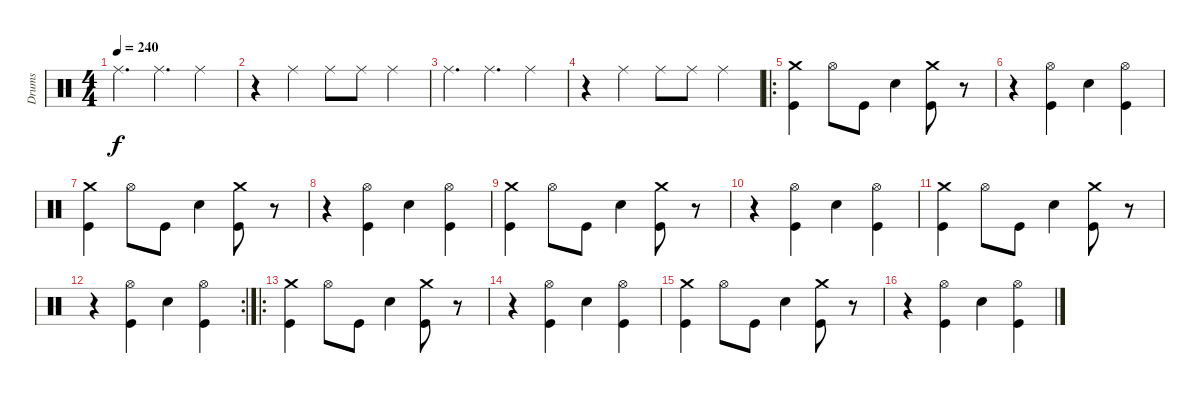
\track ("Drums" "Drums") {instrument percussion}
\staff {score}
\articulation defaults
\ts (4 4)
\tempo 240
\clef neutral
\ks c "Ride (middle)".4{d dy f} "Ride (middle)".4{d} "Ride (middle)".4
|
r.4 "Ride (middle)".4 "Ride (middle)".8 "Ride (middle)".8 "Ride (middle)".4 |
"Ride (middle)".4{d} "Ride (middle)".4{d} "Ride (middle)".4 |
r.4 "Ride (middle)".4 "Ride (middle)".8 "Ride (middle)".8 "Ride (middle)".4 |
\ro
("Crash medium (hit)" "Kick (hit)").4 "Hi-Hat (open)".8 "Kick (hit)".8 "Snare (hit) 2".4 ("Crash medium (hit)" "Kick (hit)").8 r.8 |
r.4 ("Hi-Hat (open)" "Kick (hit)").4 "Snare (hit) 2".4 ("Hi-Hat (open)" "Kick (hit)").4 |
("Crash medium (hit)" "Kick (hit)").4 "Hi-Hat (open)".8 "Kick (hit)".8 "Snare (hit) 2".4 ("Crash medium (hit)" "Kick (hit)").8 r.8 |
r.4 ("Hi-Hat (open)" "Kick (hit)").4 "Snare (hit) 2".4 ("Hi-Hat (open)" "Kick (hit)").4 |
("Crash medium (hit)" "Kick (hit)").4 "Hi-Hat (open)".8 "Kick (hit)".8 "Snare (hit) 2".4 ("Crash medium (hit)" "Kick (hit)").8 r.8 |
r.4 ("Hi-Hat (open)" "Kick (hit)").4 "Snare (hit) 2".4 ("Hi-Hat (open)" "Kick (hit)").4 |
("Crash medium (hit)" "Kick (hit)").4 "Hi-Hat (open)".8 "Kick (hit)".8 "Snare (hit) 2".4 ("Crash medium (hit)" "Kick (hit)").8 r.8 |
\rc 2
r.4 ("Hi-Hat (open)" "Kick (hit)").4 "Snare (hit) 2".4 ("Hi-Hat (open)" "Kick (hit)").4 |
\ro
("Crash medium (hit)" "Kick (hit)").4 "Hi-Hat (open)".8 "Kick (hit)".8 "Snare (hit) 2".4 ("Crash medium (hit)" "Kick (hit)").8 r.8 |
r.4 ("Hi-Hat (open)" "Kick (hit)").4 "Snare (hit) 2".4 ("Hi-Hat (open)" "Kick (hit)").4 |
("Crash medium (hit)" "Kick (hit)").4 "Hi-Hat (open)".8 "Kick (hit)".8 "Snare (hit) 2".4 ("Crash medium (hit)" "Kick (hit)").8 r.8 |
r.4 ("Hi-Hat (open)" "Kick (hit)").4 "Snare (hit) 2".4 ("Hi-Hat (open)" "Kick (hit)").4
